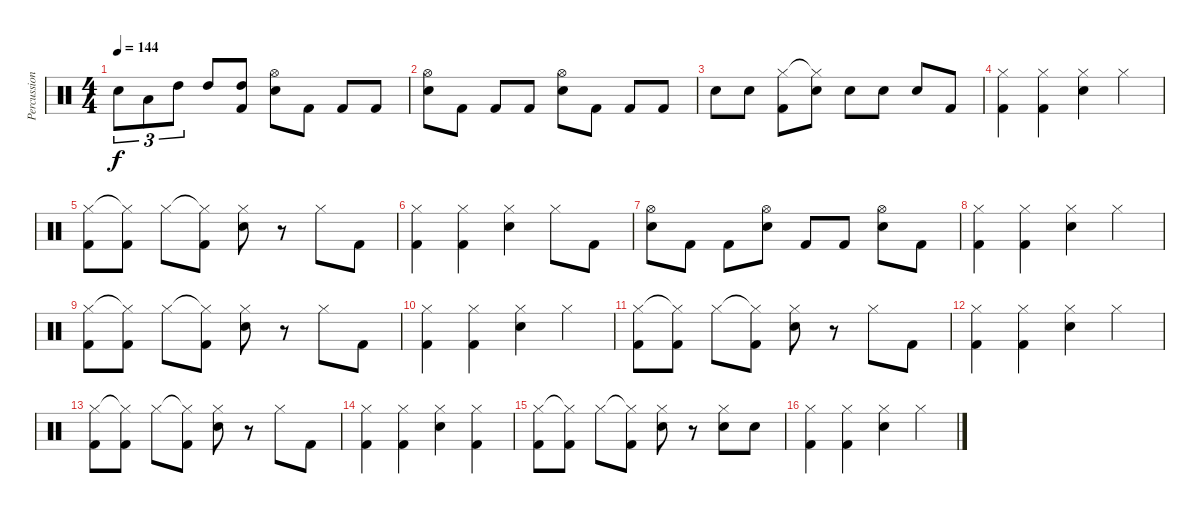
\track ("Percussion" "Percussion") {instrument percussion}
\staff {score}
\articulation defaults
\ts (4 4)
\tempo 144
\clef neutral
\ks c "Snare (hit) 2".8{tu (3 2) dy f} "Low Tom (hit)".8{tu (3 2)} "High Tom (hit)".8{tu (3 2)} "High Tom (hit)".8
("High Tom (hit)" "Kick (hit) 2").8 ("Hi-Hat (open)" "Snare (hit) 2").8 "Kick (hit) 2".8 "Kick (hit) 2".8 "Kick (hit) 2".8 |
("Hi-Hat (open)" "Snare (hit) 2").8 "Kick (hit) 2".8 "Kick (hit) 2".8 "Kick (hit) 2".8 ("Hi-Hat (open)" "Snare (hit) 2").8 "Kick (hit) 2".8 "Kick (hit) 2".8 "Kick (hit) 2".8 |
"Snare (hit) 2".8 "Snare (hit) 2".8 ("Hi-Hat (closed)" "Kick (hit) 2").8 ("Hi-Hat (closed)"{t} "Snare (hit) 2").8 "Snare (hit) 2".8 "Snare (hit) 2".8 "Snare (hit) 2".8 "Kick (hit) 2".8 |
("Hi-Hat (closed)" "Kick (hit) 2").4 ("Hi-Hat (closed)" "Kick (hit) 2").4 ("Hi-Hat (closed)" "Snare (hit) 2").4 "Hi-Hat (closed)".4 |
("Hi-Hat (closed)" "Kick (hit) 2").8 ("Hi-Hat (closed)"{t} "Kick (hit) 2").8 "Hi-Hat (closed)".8 ("Hi-Hat (closed)"{t} "Kick (hit) 2").8 ("Hi-Hat (closed)" "Snare (hit) 2").8 r.8 "Hi-Hat (closed)".8 "Kick (hit) 2".8 |
("Hi-Hat (closed)" "Kick (hit) 2").4 ("Hi-Hat (closed)" "Kick (hit) 2").4 ("Hi-Hat (closed)" "Snare (hit) 2").4 "Hi-Hat (closed)".8 "Kick (hit) 2".8 |
("Hi-Hat (open)" "Snare (hit) 2").8 "Kick (hit) 2".8 "Kick (hit) 2".8 ("Hi-Hat (open)" "Snare (hit) 2").8 "Kick (hit) 2".8 "Kick (hit) 2".8 ("Hi-Hat (open)" "Snare (hit) 2").8 "Kick (hit) 2".8 |
("Hi-Hat (closed)" "Kick (hit) 2").4 ("Hi-Hat (closed)" "Kick (hit) 2").4 ("Hi-Hat (closed)" "Snare (hit) 2").4 "Hi-Hat (closed)".4 |
("Hi-Hat (closed)" "Kick (hit) 2").8 ("Hi-Hat (closed)"{t} "Kick (hit) 2").8 "Hi-Hat (closed)".8 ("Hi-Hat (closed)"{t} "Kick (hit) 2").8 ("Hi-Hat (closed)" "Snare (hit) 2").8 r.8 "Hi-Hat (closed)".8 "Kick (hit) 2".8 |
("Hi-Hat (closed)" "Kick (hit) 2").4 ("Hi-Hat (closed)" "Kick (hit) 2").4 ("Hi-Hat (closed)" "Snare (hit) 2").4 "Hi-Hat (closed)".4 |
("Hi-Hat (closed)" "Kick (hit) 2").8 ("Hi-Hat (closed)"{t} "Kick (hit) 2").8 "Hi-Hat (closed)".8 ("Hi-Hat (closed)"{t} "Kick (hit) 2").8 ("Hi-Hat (closed)" "Snare (hit) 2").8 r.8 "Hi-Hat (closed)".8 "Kick (hit) 2".8 |
("Hi-Hat (closed)" "Kick (hit) 2").4 ("Hi-Hat (closed)" "Kick (hit) 2").4 ("Hi-Hat (closed)" "Snare (hit) 2").4 "Hi-Hat (closed)".4 |
("Hi-Hat (closed)" "Kick (hit) 2").8 ("Hi-Hat (closed)"{t} "Kick (hit) 2").8 "Hi-Hat (closed)".8 ("Hi-Hat (closed)"{t} "Kick (hit) 2").8 ("Hi-Hat (closed)" "Snare (hit) 2").8 r.8 "Hi-Hat (closed)".8 "Kick (hit) 2".8 |
("Hi-Hat (closed)" "Kick (hit) 2").4 ("Hi-Hat (closed)" "Kick (hit) 2").4 ("Hi-Hat (closed)" "Snare (hit) 2").4 ("Hi-Hat (closed)" "Kick (hit) 2").4 |
("Hi-Hat (closed)" "Kick (hit) 2").8 ("Hi-Hat (closed)"{t} "Kick (hit) 2").8 "Hi-Hat (closed)".8 ("Hi-Hat (closed)"{t} "Kick (hit) 2").8 ("Hi-Hat (closed)" "Snare (hit) 2").8 r.8 ("Hi-Hat (closed)" "Snare (hit) 2").8 "Snare (hit) 2".8 |
("Hi-Hat (closed)" "Kick (hit) 2").4 ("Hi-Hat (closed)" "Kick (hit) 2").4 ("Hi-Hat (closed)" "Snare (hit) 2").4 "Hi-Hat (closed)".4
